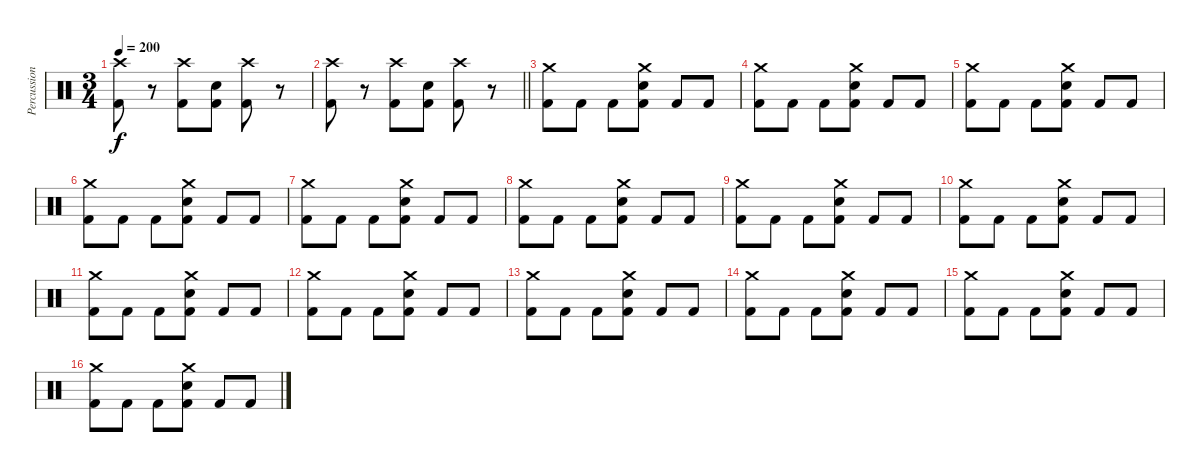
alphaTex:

\track ("Percussion" "Percussion") {instrument percussion}
\staff {score}
\articulation defaults
\ts (3 4)
\tempo 200
\clef neutral
\ks c
("Crash high (hit)" "Kick (hit) 2").8{dy f} r.8 ("Crash high (hit)" "Kick (hit) 2").8 ("Electric Snare (hit)" "Kick (hit) 2").8 ("Crash high (hit)" "Kick (hit) 2").8 r.8 |
\barLineRight lightlight
("Crash high (hit)" "Kick (hit) 2").8 r.8 ("Crash high (hit)" "Kick (hit) 2").8 ("Electric Snare (hit)" "Kick (hit) 2").8 ("Crash high (hit)" "Kick (hit) 2").8 r.8 |
("Crash medium (hit)" "Kick (hit) 2").8 "Kick (hit) 2".8 "Kick (hit) 2".8 ("Crash medium (hit)" "Electric Snare (hit)" "Kick (hit) 2").8 "Kick (hit) 2".8 "Kick (hit) 2".8 |
("Crash medium (hit)" "Kick (hit) 2").8 "Kick (hit) 2".8 "Kick (hit) 2".8 ("Crash medium (hit)" "Electric Snare (hit)" "Kick (hit) 2").8 "Kick (hit) 2".8 "Kick (hit) 2".8 |
("Crash medium (hit)" "Kick (hit) 2").8 "Kick (hit) 2".8 "Kick (hit) 2".8 ("Crash medium (hit)" "Electric Snare (hit)" "Kick (hit) 2").8 "Kick (hit) 2".8 "Kick (hit) 2".8 |
("Crash medium (hit)" "Kick (hit) 2").8 "Kick (hit) 2".8 "Kick (hit) 2".8 ("Crash medium (hit)" "Electric Snare (hit)" "Kick (hit) 2").8 "Kick (hit) 2".8 "Kick (hit) 2".8 |
("Crash medium (hit)" "Kick (hit) 2").8 "Kick (hit) 2".8 "Kick (hit) 2".8 ("Crash medium (hit)" "Electric Snare (hit)" "Kick (hit) 2").8 "Kick (hit) 2".8 "Kick (hit) 2".8 |
("Crash medium (hit)" "Kick (hit) 2").8 "Kick (hit) 2".8 "Kick (hit) 2".8 ("Crash medium (hit)" "Electric Snare (hit)" "Kick (hit) 2").8 "Kick (hit) 2".8 "Kick (hit) 2".8 |
("Crash medium (hit)" "Kick (hit) 2").8 "Kick (hit) 2".8 "Kick (hit) 2".8 ("Crash medium (hit)" "Electric Snare (hit)" "Kick (hit) 2").8 "Kick (hit) 2".8 "Kick (hit) 2".8 |
("Crash medium (hit)" "Kick (hit) 2").8 "Kick (hit) 2".8 "Kick (hit) 2".8 ("Crash medium (hit)" "Electric Snare (hit)" "Kick (hit) 2").8 "Kick (hit) 2".8 "Kick (hit) 2".8 |
("Crash medium (hit)" "Kick (hit) 2").8 "Kick (hit) 2".8 "Kick (hit) 2".8 ("Crash medium (hit)" "Electric Snare (hit)" "Kick (hit) 2").8 "Kick (hit) 2".8 "Kick (hit) 2".8 |
("Crash medium (hit)" "Kick (hit) 2").8 "Kick (hit) 2".8 "Kick (hit) 2".8 ("Crash medium (hit)" "Electric Snare (hit)" "Kick (hit) 2").8 "Kick (hit) 2".8 "Kick (hit) 2".8 |
("Crash medium (hit)" "Kick (hit) 2").8 "Kick (hit) 2".8 "Kick (hit) 2".8 ("Crash medium (hit)" "Electric Snare (hit)" "Kick (hit) 2").8 "Kick (hit) 2".8 "Kick (hit) 2".8 |
("Crash medium (hit)" "Kick (hit) 2").8 "Kick (hit) 2".8 "Kick (hit) 2".8 ("Crash medium (hit)" "Electric Snare (hit)" "Kick (hit) 2").8 "Kick (hit) 2".8 "Kick (hit) 2".8 |
("Crash medium (hit)" "Kick (hit) 2").8 "Kick (hit) 2".8 "Kick (hit) 2".8 ("Crash medium (hit)" "Electric Snare (hit)" "Kick (hit) 2").8 "Kick (hit) 2".8 "Kick (hit) 2".8 |
("Crash medium (hit)" "Kick (hit) 2").8 "Kick (hit) 2".8 "Kick (hit) 2".8 ("Crash medium (hit)" "Electric Snare (hit)" "Kick (hit) 2").8 "Kick (hit) 2".8 "Kick (hit) 2".8
